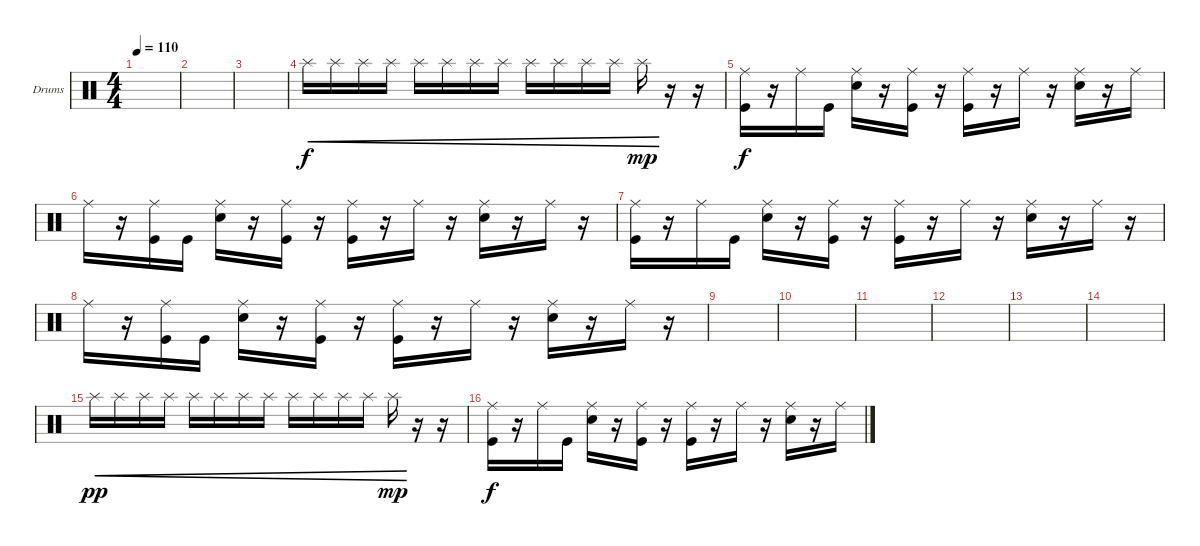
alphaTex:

\defaultSystemsLayout 4
\bracketExtendMode groupsimilarinstruments
\firstSystemTrackNameOrientation horizontal
\otherSystemsTrackNameOrientation horizontal
\track ("Drumkit" "Drums") {instrument percussion}
\staff {score}
\articulation defaults
\ts (4 4)
\tempo 110
\clef neutral
\ks c
|
|
|
"Splash (hit)".16{cre} "Splash (hit)".16{cre} "Splash (hit)".16{cre} "Splash (hit)".16{cre} "Splash (hit)".16{cre} "Splash (hit)".16{cre} "Splash (hit)".16{cre} "Splash (hit)".16{cre} "Splash (hit)".16{cre} "Splash (hit)".16{cre} "Splash (hit)".16{cre} "Splash (hit)".16{cre} "Splash (hit)".16{cre dy mp} r.16 r.16 |
("Kick (hit)" "Ride (middle)").16{dy f} r.16 "Ride (middle)".16 "Kick (hit)".16 ("Snare (hit) 2" "Ride (middle)").16 r.16 ("Kick (hit)" "Ride (middle)").16 r.16 ("Kick (hit)" "Ride (middle)").16 r.16 "Ride (middle)".16 r.16 ("Ride (middle)" "Snare (hit) 2").16 r.16 "Ride (middle)".16 |
"Ride (middle)".16 r.16 ("Ride (middle)" "Kick (hit)").16 "Kick (hit)".16 ("Ride (middle)" "Snare (hit) 2").16 r.16 ("Ride (middle)" "Kick (hit)").16 r.16 ("Ride (middle)" "Kick (hit)").16 r.16 "Ride (middle)".16 r.16 ("Ride (middle)" "Snare (hit) 2").16 r.16 "Ride (middle)".16 r.16 |
("Kick (hit)" "Ride (middle)").16 r.16 "Ride (middle)".16 "Kick (hit)".16 ("Snare (hit) 2" "Ride (middle)").16 r.16 ("Kick (hit)" "Ride (middle)").16 r.16 ("Kick (hit)" "Ride (middle)").16 r.16 "Ride (middle)".16 r.16 ("Ride (middle)" "Snare (hit) 2").16 r.16 "Ride (middle)".16 r.16 |
"Ride (middle)".16 r.16 ("Ride (middle)" "Kick (hit)").16 "Kick (hit)".16 ("Ride (middle)" "Snare (hit) 2").16 r.16 ("Ride (middle)" "Kick (hit)").16 r.16 ("Ride (middle)" "Kick (hit)").16 r.16 "Ride (middle)".16 r.16 ("Ride (middle)" "Snare (hit) 2").16 r.16 "Ride (middle)".16 r.16 |
|
|
|
|
|
|
"Splash (hit)".16{cre dy pp} "Splash (hit)".16{cre} "Splash (hit)".16{cre} "Splash (hit)".16{cre} "Splash (hit)".16{cre} "Splash (hit)".16{cre} "Splash (hit)".16{cre} "Splash (hit)".16{cre} "Splash (hit)".16{cre} "Splash (hit)".16{cre} "Splash (hit)".16{cre} "Splash (hit)".16{cre} "Splash (hit)".16{cre dy mp} r.16 r.16 |
("Kick (hit)" "Ride (middle)").16{dy f} r.16 "Ride (middle)".16 "Kick (hit)".16 ("Snare (hit) 2" "Ride (middle)").16 r.16 ("Kick (hit)" "Ride (middle)").16 r.16 ("Kick (hit)" "Ride (middle)").16 r.16 "Ride (middle)".16 r.16 ("Ride (middle)" "Snare (hit) 2").16 r.16 "Ride (middle)".16
